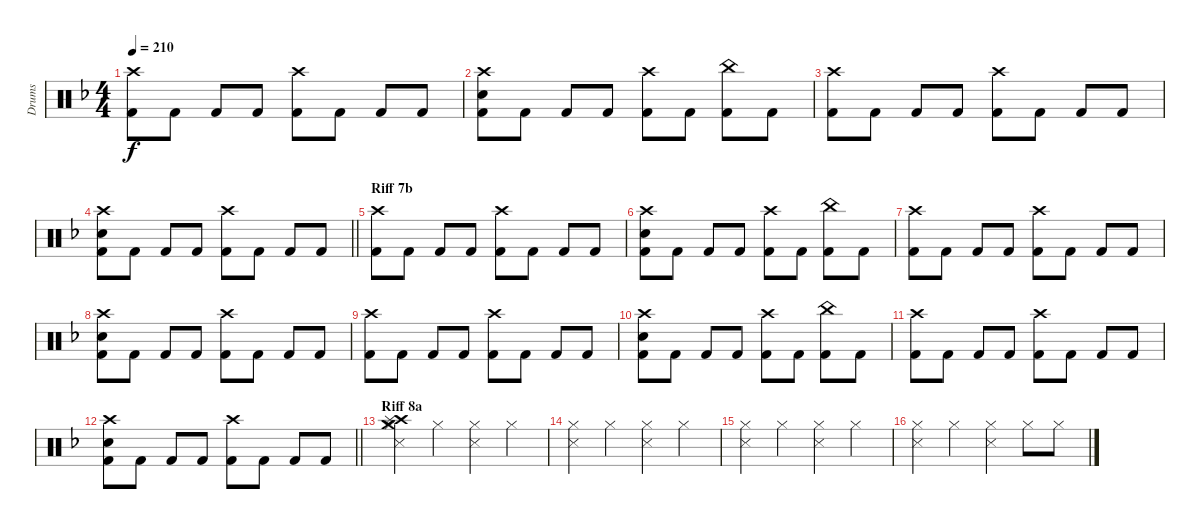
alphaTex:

\track ("Drums" "Drums") {instrument percussion}
\staff {score}
\articulation defaults
\ts (4 4)
\tempo 210
\clef neutral
\ks dminor
("Crash high (hit)" "Kick (hit) 2").8{dy f} "Kick (hit) 2".8 "Kick (hit) 2".8 "Kick (hit) 2".8 ("Crash high (hit)" "Kick (hit) 2").8 "Kick (hit) 2".8 "Kick (hit) 2".8 "Kick (hit) 2".8 |
("Crash high (hit)" "Electric Snare (hit)" "Kick (hit) 2").8 "Kick (hit) 2".8 "Kick (hit) 2".8 "Kick (hit) 2".8 ("Crash high (hit)" "Kick (hit) 2").8 "Kick (hit) 2".8 ("China (hit)" "Kick (hit) 2").8 "Kick (hit) 2".8 |
("Crash high (hit)" "Kick (hit) 2").8 "Kick (hit) 2".8 "Kick (hit) 2".8 "Kick (hit) 2".8 ("Crash high (hit)" "Kick (hit) 2").8 "Kick (hit) 2".8 "Kick (hit) 2".8 "Kick (hit) 2".8 |
\barLineRight lightlight
("Crash high (hit)" "Electric Snare (hit)" "Kick (hit) 2").8 "Kick (hit) 2".8 "Kick (hit) 2".8 "Kick (hit) 2".8 ("Crash high (hit)" "Kick (hit) 2").8 "Kick (hit) 2".8 "Kick (hit) 2".8 "Kick (hit) 2".8 |
\section ("" "Riff 7b")
("Crash high (hit)" "Kick (hit) 2").8 "Kick (hit) 2".8 "Kick (hit) 2".8 "Kick (hit) 2".8 ("Crash high (hit)" "Kick (hit) 2").8 "Kick (hit) 2".8 "Kick (hit) 2".8 "Kick (hit) 2".8 |
("Crash high (hit)" "Electric Snare (hit)" "Kick (hit) 2").8 "Kick (hit) 2".8 "Kick (hit) 2".8 "Kick (hit) 2".8 ("Crash high (hit)" "Kick (hit) 2").8 "Kick (hit) 2".8 ("China (hit)" "Kick (hit) 2").8 "Kick (hit) 2".8 |
("Crash high (hit)" "Kick (hit) 2").8 "Kick (hit) 2".8 "Kick (hit) 2".8 "Kick (hit) 2".8 ("Crash high (hit)" "Kick (hit) 2").8 "Kick (hit) 2".8 "Kick (hit) 2".8 "Kick (hit) 2".8 |
("Crash high (hit)" "Electric Snare (hit)" "Kick (hit) 2").8 "Kick (hit) 2".8 "Kick (hit) 2".8 "Kick (hit) 2".8 ("Crash high (hit)" "Kick (hit) 2").8 "Kick (hit) 2".8 "Kick (hit) 2".8 "Kick (hit) 2".8 |
("Crash high (hit)" "Kick (hit) 2").8 "Kick (hit) 2".8 "Kick (hit) 2".8 "Kick (hit) 2".8 ("Crash high (hit)" "Kick (hit) 2").8 "Kick (hit) 2".8 "Kick (hit) 2".8 "Kick (hit) 2".8 |
("Crash high (hit)" "Electric Snare (hit)" "Kick (hit) 2").8 "Kick (hit) 2".8 "Kick (hit) 2".8 "Kick (hit) 2".8 ("Crash high (hit)" "Kick (hit) 2").8 "Kick (hit) 2".8 ("China (hit)" "Kick (hit) 2").8 "Kick (hit) 2".8 |
("Crash high (hit)" "Kick (hit) 2").8 "Kick (hit) 2".8 "Kick (hit) 2".8 "Kick (hit) 2".8 ("Crash high (hit)" "Kick (hit) 2").8 "Kick (hit) 2".8 "Kick (hit) 2".8 "Kick (hit) 2".8 |
\barLineRight lightlight
("Crash high (hit)" "Electric Snare (hit)" "Kick (hit) 2").8 "Kick (hit) 2".8 "Kick (hit) 2".8 "Kick (hit) 2".8 ("Crash high (hit)" "Kick (hit) 2").8 "Kick (hit) 2".8 "Kick (hit) 2".8 "Kick (hit) 2".8 |
\section ("" "Riff 8a")
("Crash medium (hit)" "Hi-Hat (closed)" "Crash high (hit)" "Splash (hit)" "Snare (side stick) 3").4 "Hi-Hat (closed)".4 ("Hi-Hat (closed)" "Snare (side stick) 3").4 "Hi-Hat (closed)".4 |
("Hi-Hat (closed)" "Snare (side stick) 3").4 "Hi-Hat (closed)".4 ("Hi-Hat (closed)" "Snare (side stick) 3").4 "Hi-Hat (closed)".4 |
("Hi-Hat (closed)" "Snare (side stick) 3").4 "Hi-Hat (closed)".4 ("Hi-Hat (closed)" "Snare (side stick) 3").4 "Hi-Hat (closed)".4 |
("Hi-Hat (closed)" "Snare (side stick) 3").4 "Hi-Hat (closed)".4 ("Hi-Hat (closed)" "Snare (side stick) 3").4 "Hi-Hat (closed)".8 "Hi-Hat (closed)".8
